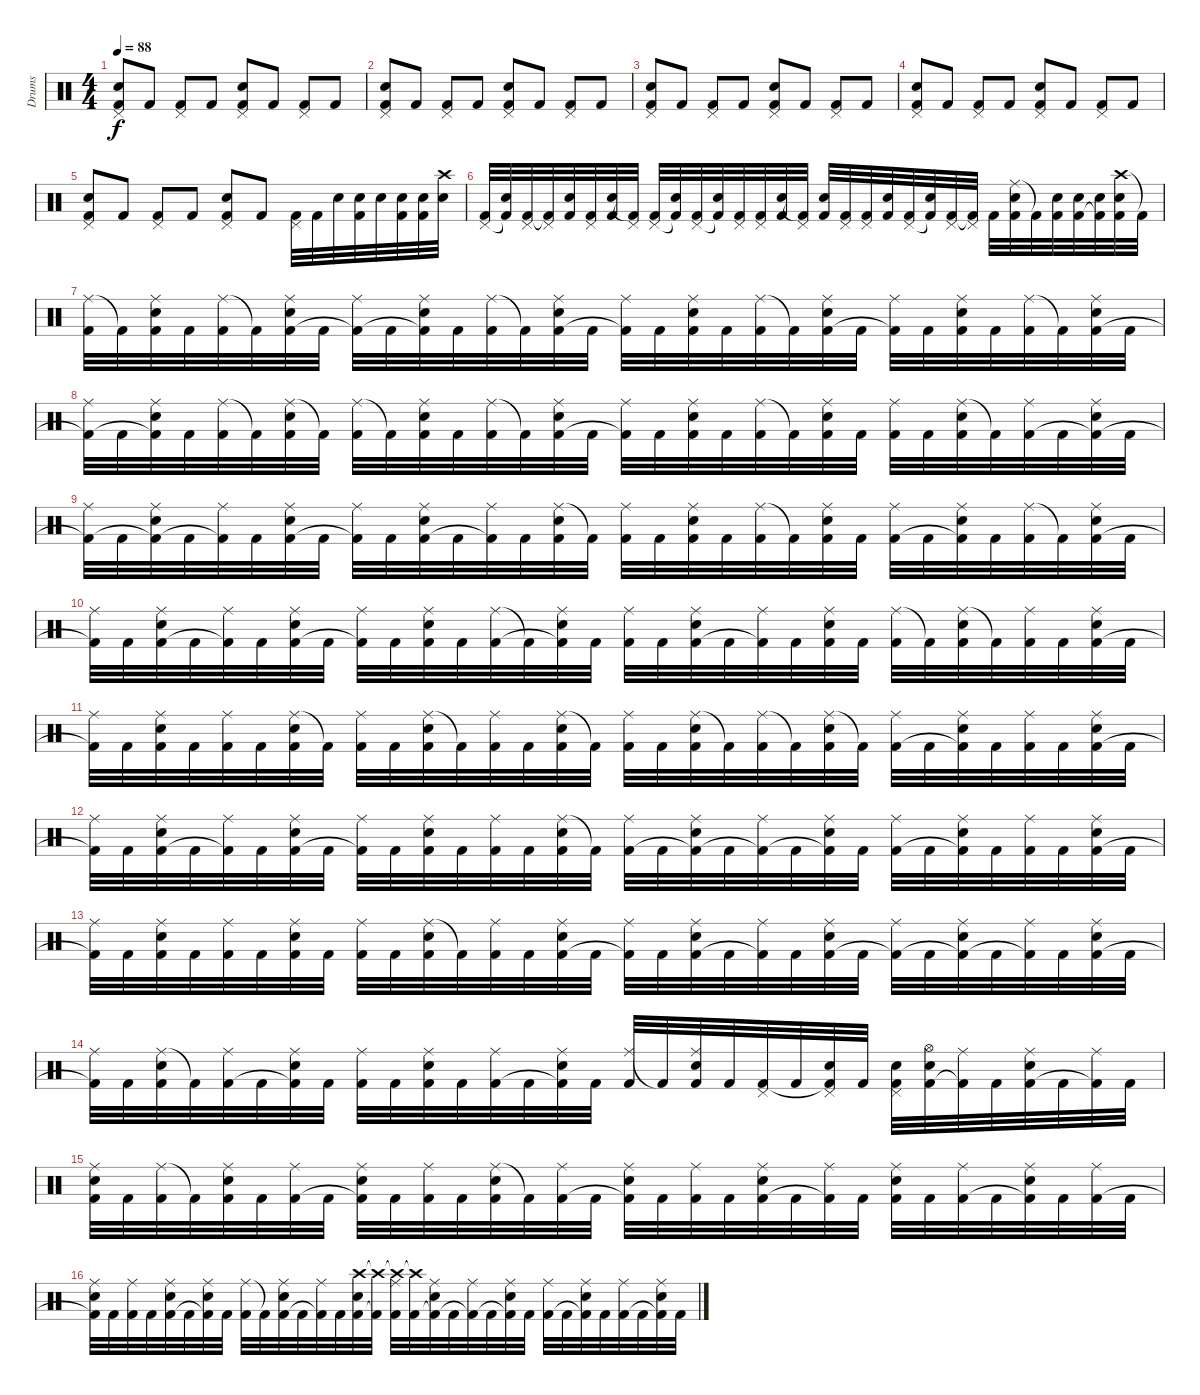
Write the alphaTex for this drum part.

\track ("Drums" "Drums") {instrument percussion}
\staff {score}
\articulation defaults
\ts (4 4)
\tempo 88
\clef neutral
\ks c
("Pedal Hi-Hat (hit)" "Kick (hit) 2" "Electric Snare (hit)").8{dy f} "Kick (hit) 2".8 ("Pedal Hi-Hat (hit)" "Kick (hit) 2").8 "Kick (hit) 2".8 ("Pedal Hi-Hat (hit)" "Kick (hit) 2" "Electric Snare (hit)").8 "Kick (hit) 2".8 ("Pedal Hi-Hat (hit)" "Kick (hit) 2").8 "Kick (hit) 2".8 |
("Pedal Hi-Hat (hit)" "Kick (hit) 2" "Electric Snare (hit)").8 "Kick (hit) 2".8 ("Pedal Hi-Hat (hit)" "Kick (hit) 2").8 "Kick (hit) 2".8 ("Pedal Hi-Hat (hit)" "Kick (hit) 2" "Electric Snare (hit)").8 "Kick (hit) 2".8 ("Pedal Hi-Hat (hit)" "Kick (hit) 2").8 "Kick (hit) 2".8 |
("Pedal Hi-Hat (hit)" "Kick (hit) 2" "Electric Snare (hit)").8 "Kick (hit) 2".8 ("Pedal Hi-Hat (hit)" "Kick (hit) 2").8 "Kick (hit) 2".8 ("Pedal Hi-Hat (hit)" "Kick (hit) 2" "Electric Snare (hit)").8 "Kick (hit) 2".8 ("Pedal Hi-Hat (hit)" "Kick (hit) 2").8 "Kick (hit) 2".8 |
("Pedal Hi-Hat (hit)" "Kick (hit) 2" "Electric Snare (hit)").8 "Kick (hit) 2".8 ("Pedal Hi-Hat (hit)" "Kick (hit) 2").8 "Kick (hit) 2".8 ("Pedal Hi-Hat (hit)" "Kick (hit) 2" "Electric Snare (hit)").8 "Kick (hit) 2".8 ("Pedal Hi-Hat (hit)" "Kick (hit) 2").8 "Kick (hit) 2".8 |
("Pedal Hi-Hat (hit)" "Kick (hit) 2" "Electric Snare (hit)").8 "Kick (hit) 2".8 ("Pedal Hi-Hat (hit)" "Kick (hit) 2").8 "Kick (hit) 2".8 ("Pedal Hi-Hat (hit)" "Kick (hit) 2" "Electric Snare (hit)").8 "Kick (hit) 2".8 ("Pedal Hi-Hat (hit)" "Kick (hit) 2").32 "Kick (hit) 2".32 "Electric Snare (hit)".32 ("Kick (hit) 2" "Electric Snare (hit)").32 "Electric Snare (hit)".32 ("Kick (hit) 2" "Electric Snare (hit)").32 ("Kick (hit) 2" "Electric Snare (hit)").32 ("Crash high (hit)" "Electric Snare (hit)").32 |
("Pedal Hi-Hat (hit)" "Kick (hit) 2").32 ("Kick (hit) 2"{t} "Electric Snare (hit)").32 ("Pedal Hi-Hat (hit)" "Kick (hit) 2").32 ("Pedal Hi-Hat (hit)" "Kick (hit) 2"{t}).32 ("Kick (hit) 2" "Electric Snare (hit)").32 ("Pedal Hi-Hat (hit)" "Kick (hit) 2").32 ("Kick (hit) 2" "Electric Snare (hit)").32 ("Pedal Hi-Hat (hit)" "Kick (hit) 2"{t}).32 ("Pedal Hi-Hat (hit)" "Kick (hit) 2").32 ("Kick (hit) 2"{t} "Electric Snare (hit)").32 ("Pedal Hi-Hat (hit)" "Kick (hit) 2").32 ("Kick (hit) 2"{t} "Electric Snare (hit)").32 ("Pedal Hi-Hat (hit)" "Kick (hit) 2").32 ("Pedal Hi-Hat (hit)" "Kick (hit) 2").32 ("Kick (hit) 2" "Electric Snare (hit)").32 ("Pedal Hi-Hat (hit)" "Kick (hit) 2"{t}).32 ("Kick (hit) 2" "Electric Snare (hit)").32 ("Pedal Hi-Hat (hit)" "Kick (hit) 2").32 ("Pedal Hi-Hat (hit)" "Kick (hit) 2").32 ("Kick (hit) 2" "Electric Snare (hit)").32 ("Pedal Hi-Hat (hit)" "Kick (hit) 2").32 ("Kick (hit) 2"{t} "Electric Snare (hit)").32 ("Pedal Hi-Hat (hit)" "Kick (hit) 2").32 ("Pedal Hi-Hat (hit)" "Kick (hit) 2"{t}).32 "Kick (hit) 2".32 ("Ride (middle)" "Kick (hit) 2" "Electric Snare (hit)").32 "Kick (hit) 2"{t}.32 ("Kick (hit) 2" "Electric Snare (hit)").32 ("Kick (hit) 2" "Electric Snare (hit)").32 ("Kick (hit) 2"{t} "Electric Snare (hit)").32 ("Crash high (hit)" "Kick (hit) 2" "Electric Snare (hit)").32 "Kick (hit) 2"{t}.32 |
("Ride (middle)" "Kick (hit) 2").32 "Kick (hit) 2"{t}.32 ("Ride (middle)" "Kick (hit) 2" "Electric Snare (hit)").32 "Kick (hit) 2".32 ("Ride (middle)" "Kick (hit) 2").32 "Kick (hit) 2"{t}.32 ("Ride (middle)" "Kick (hit) 2" "Electric Snare (hit)").32 "Kick (hit) 2".32 ("Ride (middle)" "Kick (hit) 2"{t}).32 "Kick (hit) 2".32 ("Ride (middle)" "Kick (hit) 2"{t} "Electric Snare (hit)").32 "Kick (hit) 2".32 ("Ride (middle)" "Kick (hit) 2").32 "Kick (hit) 2"{t}.32 ("Ride (middle)" "Kick (hit) 2" "Electric Snare (hit)").32 "Kick (hit) 2".32 ("Ride (middle)" "Kick (hit) 2"{t}).32 "Kick (hit) 2".32 ("Ride (middle)" "Kick (hit) 2" "Electric Snare (hit)").32 "Kick (hit) 2".32 ("Ride (middle)" "Kick (hit) 2").32 "Kick (hit) 2"{t}.32 ("Ride (middle)" "Kick (hit) 2" "Electric Snare (hit)").32 "Kick (hit) 2".32 ("Ride (middle)" "Kick (hit) 2"{t}).32 "Kick (hit) 2".32 ("Ride (middle)" "Kick (hit) 2" "Electric Snare (hit)").32 "Kick (hit) 2".32 ("Ride (middle)" "Kick (hit) 2").32 "Kick (hit) 2"{t}.32 ("Ride (middle)" "Kick (hit) 2" "Electric Snare (hit)").32 "Kick (hit) 2".32 |
("Ride (middle)" "Kick (hit) 2"{t}).32 "Kick (hit) 2".32 ("Ride (middle)" "Kick (hit) 2"{t} "Electric Snare (hit)").32 "Kick (hit) 2".32 ("Ride (middle)" "Kick (hit) 2").32 "Kick (hit) 2"{t}.32 ("Ride (middle)" "Kick (hit) 2" "Electric Snare (hit)").32 "Kick (hit) 2"{t}.32 ("Ride (middle)" "Kick (hit) 2").32 "Kick (hit) 2"{t}.32 ("Ride (middle)" "Kick (hit) 2" "Electric Snare (hit)").32 "Kick (hit) 2".32 ("Ride (middle)" "Kick (hit) 2").32 "Kick (hit) 2"{t}.32 ("Ride (middle)" "Kick (hit) 2" "Electric Snare (hit)").32 "Kick (hit) 2".32 ("Ride (middle)" "Kick (hit) 2"{t}).32 "Kick (hit) 2".32 ("Ride (middle)" "Kick (hit) 2" "Electric Snare (hit)").32 "Kick (hit) 2".32 ("Ride (middle)" "Kick (hit) 2").32 "Kick (hit) 2"{t}.32 ("Ride (middle)" "Kick (hit) 2" "Electric Snare (hit)").32 "Kick (hit) 2".32 ("Ride (middle)" "Kick (hit) 2").32 "Kick (hit) 2".32 ("Ride (middle)" "Kick (hit) 2" "Electric Snare (hit)").32 "Kick (hit) 2"{t}.32 ("Ride (middle)" "Kick (hit) 2").32 "Kick (hit) 2".32 ("Ride (middle)" "Kick (hit) 2"{t} "Electric Snare (hit)").32 "Kick (hit) 2".32 |
("Ride (middle)" "Kick (hit) 2"{t}).32 "Kick (hit) 2".32 ("Ride (middle)" "Kick (hit) 2"{t} "Electric Snare (hit)").32 "Kick (hit) 2".32 ("Ride (middle)" "Kick (hit) 2"{t}).32 "Kick (hit) 2".32 ("Ride (middle)" "Kick (hit) 2" "Electric Snare (hit)").32 "Kick (hit) 2".32 ("Ride (middle)" "Kick (hit) 2"{t}).32 "Kick (hit) 2".32 ("Ride (middle)" "Kick (hit) 2" "Electric Snare (hit)").32 "Kick (hit) 2".32 ("Ride (middle)" "Kick (hit) 2"{t}).32 "Kick (hit) 2".32 ("Ride (middle)" "Kick (hit) 2" "Electric Snare (hit)").32 "Kick (hit) 2"{t}.32 ("Ride (middle)" "Kick (hit) 2").32 "Kick (hit) 2".32 ("Ride (middle)" "Kick (hit) 2" "Electric Snare (hit)").32 "Kick (hit) 2".32 ("Ride (middle)" "Kick (hit) 2").32 "Kick (hit) 2"{t}.32 ("Ride (middle)" "Kick (hit) 2" "Electric Snare (hit)").32 "Kick (hit) 2".32 ("Ride (middle)" "Kick (hit) 2").32 "Kick (hit) 2".32 ("Ride (middle)" "Kick (hit) 2"{t} "Electric Snare (hit)").32 "Kick (hit) 2".32 ("Ride (middle)" "Kick (hit) 2").32 "Kick (hit) 2"{t}.32 ("Ride (middle)" "Kick (hit) 2" "Electric Snare (hit)").32 "Kick (hit) 2".32 |
("Ride (middle)" "Kick (hit) 2"{t}).32 "Kick (hit) 2".32 ("Ride (middle)" "Kick (hit) 2" "Electric Snare (hit)").32 "Kick (hit) 2".32 ("Ride (middle)" "Kick (hit) 2"{t}).32 "Kick (hit) 2".32 ("Ride (middle)" "Kick (hit) 2" "Electric Snare (hit)").32 "Kick (hit) 2".32 ("Ride (middle)" "Kick (hit) 2"{t}).32 "Kick (hit) 2".32 ("Ride (middle)" "Kick (hit) 2" "Electric Snare (hit)").32 "Kick (hit) 2".32 ("Ride (middle)" "Kick (hit) 2").32 "Kick (hit) 2"{t}.32 ("Ride (middle)" "Kick (hit) 2"{t} "Electric Snare (hit)").32 "Kick (hit) 2".32 ("Ride (middle)" "Kick (hit) 2").32 "Kick (hit) 2".32 ("Ride (middle)" "Kick (hit) 2" "Electric Snare (hit)").32 "Kick (hit) 2".32 ("Ride (middle)" "Kick (hit) 2"{t}).32 "Kick (hit) 2".32 ("Ride (middle)" "Kick (hit) 2" "Electric Snare (hit)").32 "Kick (hit) 2".32 ("Ride (middle)" "Kick (hit) 2").32 "Kick (hit) 2"{t}.32 ("Ride (middle)" "Kick (hit) 2" "Electric Snare (hit)").32 "Kick (hit) 2"{t}.32 ("Ride (middle)" "Kick (hit) 2").32 "Kick (hit) 2".32 ("Ride (middle)" "Kick (hit) 2" "Electric Snare (hit)").32 "Kick (hit) 2".32 |
("Ride (middle)" "Kick (hit) 2"{t}).32 "Kick (hit) 2".32 ("Ride (middle)" "Kick (hit) 2" "Electric Snare (hit)").32 "Kick (hit) 2".32 ("Ride (middle)" "Kick (hit) 2").32 "Kick (hit) 2".32 ("Ride (middle)" "Kick (hit) 2" "Electric Snare (hit)").32 "Kick (hit) 2"{t}.32 ("Ride (middle)" "Kick (hit) 2").32 "Kick (hit) 2".32 ("Ride (middle)" "Kick (hit) 2" "Electric Snare (hit)").32 "Kick (hit) 2"{t}.32 ("Ride (middle)" "Kick (hit) 2").32 "Kick (hit) 2".32 ("Ride (middle)" "Kick (hit) 2" "Electric Snare (hit)").32 "Kick (hit) 2"{t}.32 ("Ride (middle)" "Kick (hit) 2").32 "Kick (hit) 2".32 ("Ride (middle)" "Kick (hit) 2" "Electric Snare (hit)").32 "Kick (hit) 2"{t}.32 ("Ride (middle)" "Kick (hit) 2").32 "Kick (hit) 2"{t}.32 ("Ride (middle)" "Kick (hit) 2" "Electric Snare (hit)").32 "Kick (hit) 2"{t}.32 ("Ride (middle)" "Kick (hit) 2").32 "Kick (hit) 2".32 ("Ride (middle)" "Kick (hit) 2"{t} "Electric Snare (hit)").32 "Kick (hit) 2".32 ("Ride (middle)" "Kick (hit) 2").32 "Kick (hit) 2".32 ("Ride (middle)" "Kick (hit) 2" "Electric Snare (hit)").32 "Kick (hit) 2".32 |
("Ride (middle)" "Kick (hit) 2"{t}).32 "Kick (hit) 2".32 ("Ride (middle)" "Kick (hit) 2" "Electric Snare (hit)").32 "Kick (hit) 2".32 ("Ride (middle)" "Kick (hit) 2"{t}).32 "Kick (hit) 2".32 ("Ride (middle)" "Kick (hit) 2" "Electric Snare (hit)").32 "Kick (hit) 2".32 ("Ride (middle)" "Kick (hit) 2"{t}).32 "Kick (hit) 2".32 ("Ride (middle)" "Kick (hit) 2" "Electric Snare (hit)").32 "Kick (hit) 2".32 ("Ride (middle)" "Kick (hit) 2").32 "Kick (hit) 2".32 ("Ride (middle)" "Kick (hit) 2" "Electric Snare (hit)").32 "Kick (hit) 2"{t}.32 ("Ride (middle)" "Kick (hit) 2").32 "Kick (hit) 2".32 ("Ride (middle)" "Kick (hit) 2"{t} "Electric Snare (hit)").32 "Kick (hit) 2".32 ("Ride (middle)" "Kick (hit) 2"{t}).32 "Kick (hit) 2".32 ("Ride (middle)" "Kick (hit) 2"{t} "Electric Snare (hit)").32 "Kick (hit) 2".32 ("Ride (middle)" "Kick (hit) 2").32 "Kick (hit) 2".32 ("Ride (middle)" "Kick (hit) 2"{t} "Electric Snare (hit)").32 "Kick (hit) 2".32 ("Ride (middle)" "Kick (hit) 2").32 "Kick (hit) 2".32 ("Ride (middle)" "Kick (hit) 2" "Electric Snare (hit)").32 "Kick (hit) 2".32 |
("Ride (middle)" "Kick (hit) 2"{t}).32 "Kick (hit) 2".32 ("Ride (middle)" "Kick (hit) 2" "Electric Snare (hit)").32 "Kick (hit) 2".32 ("Ride (middle)" "Kick (hit) 2").32 "Kick (hit) 2".32 ("Ride (middle)" "Kick (hit) 2" "Electric Snare (hit)").32 "Kick (hit) 2".32 ("Ride (middle)" "Kick (hit) 2").32 "Kick (hit) 2".32 ("Ride (middle)" "Kick (hit) 2" "Electric Snare (hit)").32 "Kick (hit) 2"{t}.32 ("Ride (middle)" "Kick (hit) 2").32 "Kick (hit) 2".32 ("Ride (middle)" "Kick (hit) 2" "Electric Snare (hit)").32 "Kick (hit) 2".32 ("Ride (middle)" "Kick (hit) 2"{t}).32 "Kick (hit) 2".32 ("Ride (middle)" "Kick (hit) 2" "Electric Snare (hit)").32 "Kick (hit) 2".32 ("Ride (middle)" "Kick (hit) 2"{t}).32 "Kick (hit) 2".32 ("Ride (middle)" "Kick (hit) 2" "Electric Snare (hit)").32 "Kick (hit) 2".32 ("Ride (middle)" "Kick (hit) 2"{t}).32 "Kick (hit) 2".32 ("Ride (middle)" "Kick (hit) 2"{t} "Electric Snare (hit)").32 "Kick (hit) 2".32 ("Ride (middle)" "Kick (hit) 2"{t}).32 "Kick (hit) 2".32 ("Ride (middle)" "Kick (hit) 2" "Electric Snare (hit)").32 "Kick (hit) 2".32 |
("Ride (middle)" "Kick (hit) 2"{t}).32 "Kick (hit) 2".32 ("Ride (middle)" "Kick (hit) 2" "Electric Snare (hit)").32 "Kick (hit) 2"{t}.32 ("Ride (middle)" "Kick (hit) 2").32 "Kick (hit) 2".32 ("Ride (middle)" "Kick (hit) 2"{t} "Electric Snare (hit)").32 "Kick (hit) 2".32 ("Ride (middle)" "Kick (hit) 2").32 "Kick (hit) 2".32 ("Ride (middle)" "Kick (hit) 2" "Electric Snare (hit)").32 "Kick (hit) 2".32 ("Ride (middle)" "Kick (hit) 2").32 "Kick (hit) 2".32 ("Ride (middle)" "Kick (hit) 2"{t} "Electric Snare (hit)").32 "Kick (hit) 2".32 ("Ride (middle)" "Kick (hit) 2").32 "Kick (hit) 2"{t}.32 ("Ride (middle)" "Kick (hit) 2" "Electric Snare (hit)").32 "Kick (hit) 2".32 ("Pedal Hi-Hat (hit)" "Kick (hit) 2").32 "Kick (hit) 2".32 ("Pedal Hi-Hat (hit)" "Kick (hit) 2"{t} "Electric Snare (hit)").32 "Kick (hit) 2".32 ("Pedal Hi-Hat (hit)" "Kick (hit) 2" "Electric Snare (hit)").32 ("Hi-Hat (open)" "Kick (hit) 2" "Electric Snare (hit)").32 ("Ride (middle)" "Kick (hit) 2"{t}).32 "Kick (hit) 2".32 ("Ride (middle)" "Kick (hit) 2" "Electric Snare (hit)").32 "Kick (hit) 2".32 ("Ride (middle)" "Kick (hit) 2"{t}).32 "Kick (hit) 2".32 |
("Ride (middle)" "Kick (hit) 2" "Electric Snare (hit)").32 "Kick (hit) 2".32 ("Ride (middle)" "Kick (hit) 2").32 "Kick (hit) 2"{t}.32 ("Ride (middle)" "Kick (hit) 2" "Electric Snare (hit)").32 "Kick (hit) 2".32 ("Ride (middle)" "Kick (hit) 2").32 "Kick (hit) 2".32 ("Ride (middle)" "Kick (hit) 2"{t} "Electric Snare (hit)").32 "Kick (hit) 2".32 ("Ride (middle)" "Kick (hit) 2").32 "Kick (hit) 2".32 ("Ride (middle)" "Kick (hit) 2" "Electric Snare (hit)").32 "Kick (hit) 2"{t}.32 ("Ride (middle)" "Kick (hit) 2").32 "Kick (hit) 2".32 ("Ride (middle)" "Kick (hit) 2"{t} "Electric Snare (hit)").32 "Kick (hit) 2".32 ("Ride (middle)" "Kick (hit) 2").32 "Kick (hit) 2".32 ("Ride (middle)" "Kick (hit) 2" "Electric Snare (hit)").32 "Kick (hit) 2".32 ("Ride (middle)" "Kick (hit) 2"{t}).32 "Kick (hit) 2".32 ("Ride (middle)" "Kick (hit) 2" "Electric Snare (hit)").32 "Kick (hit) 2".32 ("Ride (middle)" "Kick (hit) 2").32 "Kick (hit) 2".32 ("Ride (middle)" "Kick (hit) 2"{t} "Electric Snare (hit)").32 "Kick (hit) 2".32 ("Ride (middle)" "Kick (hit) 2").32 "Kick (hit) 2".32 |
("Ride (middle)" "Kick (hit) 2"{t} "Electric Snare (hit)").32 "Kick (hit) 2".32 ("Ride (middle)" "Kick (hit) 2").32 "Kick (hit) 2".32 ("Ride (middle)" "Kick (hit) 2" "Electric Snare (hit)").32 "Kick (hit) 2".32 ("Ride (middle)" "Kick (hit) 2"{t} "Electric Snare (hit)").32 "Kick (hit) 2".32 ("Ride (middle)" "Kick (hit) 2").32 "Kick (hit) 2"{t}.32 ("Ride (middle)" "Kick (hit) 2" "Electric Snare (hit)").32 "Kick (hit) 2".32 ("Ride (middle)" "Kick (hit) 2"{t}).32 "Kick (hit) 2".32 ("Crash high (hit)" "Kick (hit) 2" "Electric Snare (hit)").32 ("Crash high (hit)"{t} "Kick (hit) 2"{t}).32 ("Crash high (hit)"{t} "Ride (middle)" "Kick (hit) 2").32 ("Crash high (hit)"{t} "Kick (hit) 2").32 ("Ride (middle)" "Kick (hit) 2"{t} "Electric Snare (hit)").32 "Kick (hit) 2".32 ("Ride (middle)" "Kick (hit) 2"{t}).32 "Kick (hit) 2".32 ("Ride (middle)" "Kick (hit) 2"{t} "Electric Snare (hit)").32 "Kick (hit) 2".32 ("Ride (middle)" "Kick (hit) 2").32 "Kick (hit) 2".32 ("Ride (middle)" "Kick (hit) 2"{t} "Electric Snare (hit)").32 "Kick (hit) 2".32 ("Ride (middle)" "Kick (hit) 2").32 "Kick (hit) 2".32 ("Ride (middle)" "Kick (hit) 2"{t} "Electric Snare (hit)").32 "Kick (hit) 2".32
